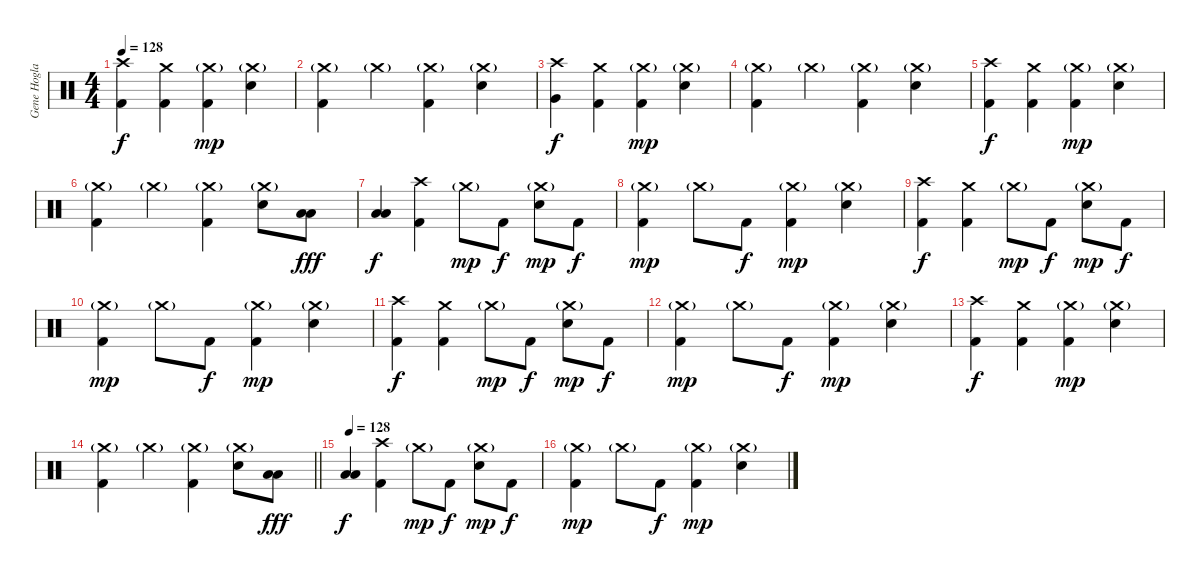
\track ("Gene Hoglan" "Gene Hogla") {instrument percussion}
\staff {score}
\articulation defaults
\ts (4 4)
\tempo 128
\clef neutral
\ks c
("Crash high (hit)" "Kick (hit) 2").4{dy f} ("Crash medium (hit)" "Kick (hit) 2").4 ("Crash medium (hit)"{g} "Kick (hit) 2").4{dy mp} ("Crash medium (hit)"{g} "Electric Snare (hit)").4 |
("Crash medium (hit)"{g} "Kick (hit) 2").4 "Crash medium (hit)"{g}.4 ("Crash medium (hit)"{g} "Kick (hit) 2").4 ("Crash medium (hit)"{g} "Electric Snare (hit)").4 |
("Crash high (hit)" "Very Low Tom (hit)").4{dy f} ("Crash medium (hit)" "Kick (hit) 2").4 ("Crash medium (hit)"{g} "Kick (hit) 2").4{dy mp} ("Crash medium (hit)"{g} "Electric Snare (hit)").4 |
("Crash medium (hit)"{g} "Kick (hit) 2").4 "Crash medium (hit)"{g}.4 ("Crash medium (hit)"{g} "Kick (hit) 2").4 ("Crash medium (hit)"{g} "Electric Snare (hit)").4 |
("Crash high (hit)" "Kick (hit) 2").4{dy f} ("Crash medium (hit)" "Kick (hit) 2").4 ("Crash medium (hit)"{g} "Kick (hit) 2").4{dy mp} ("Crash medium (hit)"{g} "Electric Snare (hit)").4 |
("Crash medium (hit)"{g} "Kick (hit) 2").4 "Crash medium (hit)"{g}.4 ("Crash medium (hit)"{g} "Kick (hit) 2").4 ("Crash medium (hit)"{g} "Electric Snare (hit)").8 ("Low Tom (hit)" "Low Tom (hit)").8{dy fff} |
("Low Tom (hit)" "Low Tom (hit)").4{dy f} ("Crash high (hit)" "Kick (hit) 2").4 "Crash medium (hit)"{g}.8{dy mp} "Kick (hit) 2".8{dy f} ("Crash medium (hit)"{g} "Electric Snare (hit)").8{dy mp} "Kick (hit) 2".8{dy f} |
("Crash medium (hit)"{g} "Kick (hit) 2").4{dy mp} "Crash medium (hit)"{g}.8 "Kick (hit) 2".8{dy f} ("Crash medium (hit)"{g} "Kick (hit) 2").4{dy mp} ("Crash medium (hit)"{g} "Electric Snare (hit)").4 |
("Crash high (hit)" "Kick (hit) 2").4{dy f} ("Crash medium (hit)" "Kick (hit) 2").4 "Crash medium (hit)"{g}.8{dy mp} "Kick (hit) 2".8{dy f} ("Crash medium (hit)"{g} "Electric Snare (hit)").8{dy mp} "Kick (hit) 2".8{dy f} |
("Crash medium (hit)"{g} "Kick (hit) 2").4{dy mp} "Crash medium (hit)"{g}.8 "Kick (hit) 2".8{dy f} ("Crash medium (hit)"{g} "Kick (hit) 2").4{dy mp} ("Crash medium (hit)"{g} "Electric Snare (hit)").4 |
("Crash high (hit)" "Kick (hit) 2").4{dy f} ("Crash medium (hit)" "Kick (hit) 2").4 "Crash medium (hit)"{g}.8{dy mp} "Kick (hit) 2".8{dy f} ("Crash medium (hit)"{g} "Electric Snare (hit)").8{dy mp} "Kick (hit) 2".8{dy f} |
("Crash medium (hit)"{g} "Kick (hit) 2").4{dy mp} "Crash medium (hit)"{g}.8 "Kick (hit) 2".8{dy f} ("Crash medium (hit)"{g} "Kick (hit) 2").4{dy mp} ("Crash medium (hit)"{g} "Electric Snare (hit)").4 |
("Crash high (hit)" "Kick (hit) 2").4{dy f} ("Crash medium (hit)" "Kick (hit) 2").4 ("Crash medium (hit)"{g} "Kick (hit) 2").4{dy mp} ("Crash medium (hit)"{g} "Electric Snare (hit)").4 |
\barLineRight lightlight
("Crash medium (hit)"{g} "Kick (hit) 2").4 "Crash medium (hit)"{g}.4 ("Crash medium (hit)"{g} "Kick (hit) 2").4 ("Crash medium (hit)"{g} "Electric Snare (hit)").8 ("Low Tom (hit)" "Low Tom (hit)").8{dy fff} |
\tempo 128
("Low Tom (hit)" "Low Tom (hit)").4{dy f} ("Crash high (hit)" "Kick (hit) 2").4 "Crash medium (hit)"{g}.8{dy mp} "Kick (hit) 2".8{dy f} ("Crash medium (hit)"{g} "Electric Snare (hit)").8{dy mp} "Kick (hit) 2".8{dy f} |
("Crash medium (hit)"{g} "Kick (hit) 2").4{dy mp} "Crash medium (hit)"{g}.8 "Kick (hit) 2".8{dy f} ("Crash medium (hit)"{g} "Kick (hit) 2").4{dy mp} ("Crash medium (hit)"{g} "Electric Snare (hit)").4
